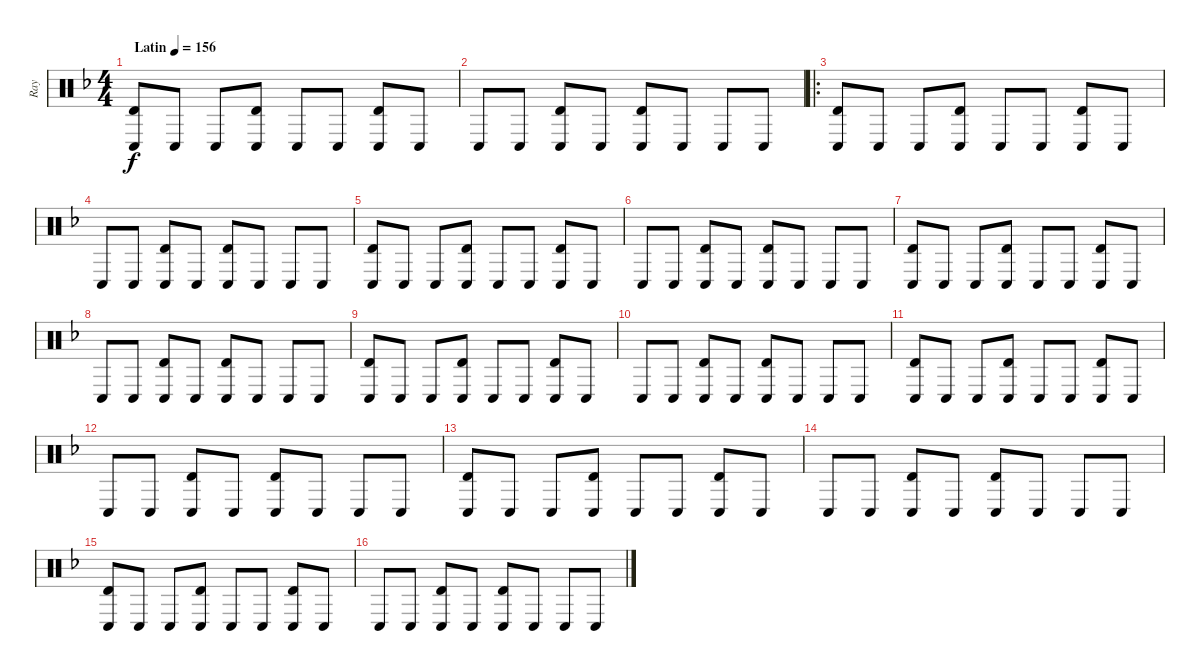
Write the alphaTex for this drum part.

\track ("Ray" "Ray") {instrument percussion}
\staff {score}
\articulation defaults
\ts (4 4)
\tempo (156 "Latin")
\clef neutral
\ks f
("Timbale high (hit)" "Conga low (hit)").8{dy f} "Conga low (hit)".8 "Conga low (hit)".8 ("Timbale high (hit)" "Conga low (hit)").8 "Conga low (hit)".8 "Conga low (hit)".8 ("Timbale high (hit)" "Conga low (hit)").8 "Conga low (hit)".8 |
"Conga low (hit)".8 "Conga low (hit)".8 ("Timbale high (hit)" "Conga low (hit)").8 "Conga low (hit)".8 ("Timbale high (hit)" "Conga low (hit)").8 "Conga low (hit)".8 "Conga low (hit)".8 "Conga low (hit)".8 |
\ro
("Timbale high (hit)" "Conga low (hit)").8 "Conga low (hit)".8 "Conga low (hit)".8 ("Timbale high (hit)" "Conga low (hit)").8 "Conga low (hit)".8 "Conga low (hit)".8 ("Timbale high (hit)" "Conga low (hit)").8 "Conga low (hit)".8 |
"Conga low (hit)".8 "Conga low (hit)".8 ("Timbale high (hit)" "Conga low (hit)").8 "Conga low (hit)".8 ("Timbale high (hit)" "Conga low (hit)").8 "Conga low (hit)".8 "Conga low (hit)".8 "Conga low (hit)".8 |
("Timbale high (hit)" "Conga low (hit)").8 "Conga low (hit)".8 "Conga low (hit)".8 ("Timbale high (hit)" "Conga low (hit)").8 "Conga low (hit)".8 "Conga low (hit)".8 ("Timbale high (hit)" "Conga low (hit)").8 "Conga low (hit)".8 |
"Conga low (hit)".8 "Conga low (hit)".8 ("Timbale high (hit)" "Conga low (hit)").8 "Conga low (hit)".8 ("Timbale high (hit)" "Conga low (hit)").8 "Conga low (hit)".8 "Conga low (hit)".8 "Conga low (hit)".8 |
("Timbale high (hit)" "Conga low (hit)").8 "Conga low (hit)".8 "Conga low (hit)".8 ("Timbale high (hit)" "Conga low (hit)").8 "Conga low (hit)".8 "Conga low (hit)".8 ("Timbale high (hit)" "Conga low (hit)").8 "Conga low (hit)".8 |
"Conga low (hit)".8 "Conga low (hit)".8 ("Timbale high (hit)" "Conga low (hit)").8 "Conga low (hit)".8 ("Timbale high (hit)" "Conga low (hit)").8 "Conga low (hit)".8 "Conga low (hit)".8 "Conga low (hit)".8 |
("Timbale high (hit)" "Conga low (hit)").8 "Conga low (hit)".8 "Conga low (hit)".8 ("Timbale high (hit)" "Conga low (hit)").8 "Conga low (hit)".8 "Conga low (hit)".8 ("Timbale high (hit)" "Conga low (hit)").8 "Conga low (hit)".8 |
"Conga low (hit)".8 "Conga low (hit)".8 ("Timbale high (hit)" "Conga low (hit)").8 "Conga low (hit)".8 ("Timbale high (hit)" "Conga low (hit)").8 "Conga low (hit)".8 "Conga low (hit)".8 "Conga low (hit)".8 |
("Timbale high (hit)" "Conga low (hit)").8 "Conga low (hit)".8 "Conga low (hit)".8 ("Timbale high (hit)" "Conga low (hit)").8 "Conga low (hit)".8 "Conga low (hit)".8 ("Timbale high (hit)" "Conga low (hit)").8 "Conga low (hit)".8 |
"Conga low (hit)".8 "Conga low (hit)".8 ("Timbale high (hit)" "Conga low (hit)").8 "Conga low (hit)".8 ("Timbale high (hit)" "Conga low (hit)").8 "Conga low (hit)".8 "Conga low (hit)".8 "Conga low (hit)".8 |
("Timbale high (hit)" "Conga low (hit)").8 "Conga low (hit)".8 "Conga low (hit)".8 ("Timbale high (hit)" "Conga low (hit)").8 "Conga low (hit)".8 "Conga low (hit)".8 ("Timbale high (hit)" "Conga low (hit)").8 "Conga low (hit)".8 |
"Conga low (hit)".8 "Conga low (hit)".8 ("Timbale high (hit)" "Conga low (hit)").8 "Conga low (hit)".8 ("Timbale high (hit)" "Conga low (hit)").8 "Conga low (hit)".8 "Conga low (hit)".8 "Conga low (hit)".8 |
("Timbale high (hit)" "Conga low (hit)").8 "Conga low (hit)".8 "Conga low (hit)".8 ("Timbale high (hit)" "Conga low (hit)").8 "Conga low (hit)".8 "Conga low (hit)".8 ("Timbale high (hit)" "Conga low (hit)").8 "Conga low (hit)".8 |
"Conga low (hit)".8 "Conga low (hit)".8 ("Timbale high (hit)" "Conga low (hit)").8 "Conga low (hit)".8 ("Timbale high (hit)" "Conga low (hit)").8 "Conga low (hit)".8 "Conga low (hit)".8 "Conga low (hit)".8
